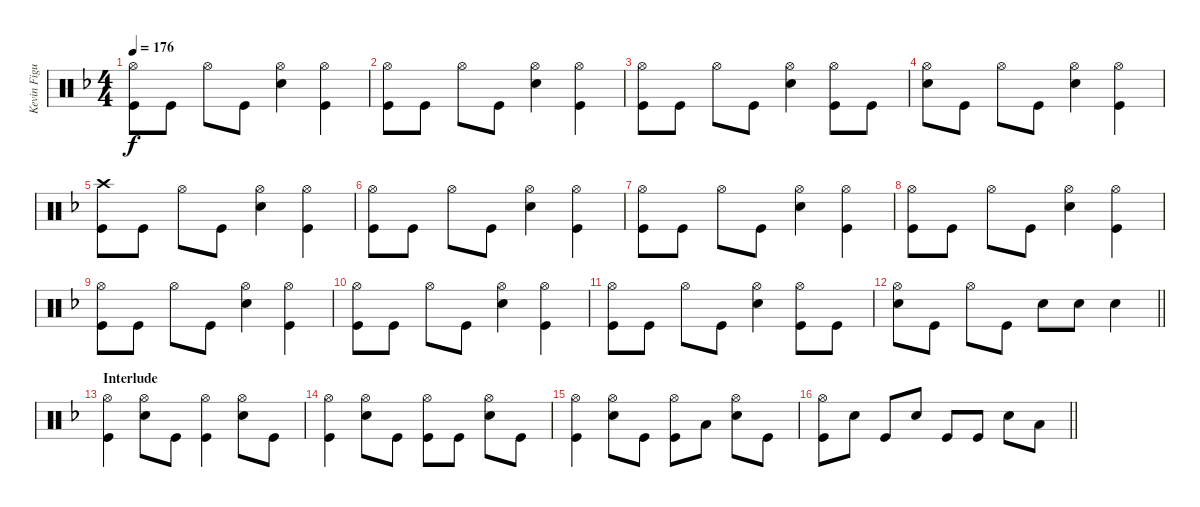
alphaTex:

\track ("Kevin Figueiredo - Drums" "Kevin Figu") {instrument percussion}
\staff {score}
\articulation defaults
\ts (4 4)
\tempo 176
\clef neutral
\ks f
("Hi-Hat (open)" "Kick (hit)").8{dy f} "Kick (hit)".8 "Hi-Hat (open)".8 "Kick (hit)".8 ("Hi-Hat (open)" "Snare (hit) 2").4 ("Hi-Hat (open)" "Kick (hit)").4 |
("Hi-Hat (open)" "Kick (hit)").8 "Kick (hit)".8 "Hi-Hat (open)".8 "Kick (hit)".8 ("Hi-Hat (open)" "Snare (hit) 2").4 ("Hi-Hat (open)" "Kick (hit)").4 |
("Hi-Hat (open)" "Kick (hit)").8 "Kick (hit)".8 "Hi-Hat (open)".8 "Kick (hit)".8 ("Hi-Hat (open)" "Snare (hit) 2").4 ("Hi-Hat (open)" "Kick (hit)").8 "Kick (hit)".8 |
("Hi-Hat (open)" "Snare (hit) 2").8 "Kick (hit)".8 "Hi-Hat (open)".8 "Kick (hit)".8 ("Hi-Hat (open)" "Snare (hit) 2").4 ("Hi-Hat (open)" "Kick (hit)").4 |
("Crash high (hit)" "Kick (hit)").8 "Kick (hit)".8 "Hi-Hat (open)".8 "Kick (hit)".8 ("Hi-Hat (open)" "Snare (hit) 2").4 ("Hi-Hat (open)" "Kick (hit)").4 |
("Hi-Hat (open)" "Kick (hit)").8 "Kick (hit)".8 "Hi-Hat (open)".8 "Kick (hit)".8 ("Hi-Hat (open)" "Snare (hit) 2").4 ("Hi-Hat (open)" "Kick (hit)").4 |
("Hi-Hat (open)" "Kick (hit)").8 "Kick (hit)".8 "Hi-Hat (open)".8 "Kick (hit)".8 ("Hi-Hat (open)" "Snare (hit) 2").4 ("Hi-Hat (open)" "Kick (hit)").4 |
("Hi-Hat (open)" "Kick (hit)").8 "Kick (hit)".8 "Hi-Hat (open)".8 "Kick (hit)".8 ("Hi-Hat (open)" "Snare (hit) 2").4 ("Hi-Hat (open)" "Kick (hit)").4 |
("Hi-Hat (open)" "Kick (hit)").8 "Kick (hit)".8 "Hi-Hat (open)".8 "Kick (hit)".8 ("Hi-Hat (open)" "Snare (hit) 2").4 ("Hi-Hat (open)" "Kick (hit)").4 |
("Hi-Hat (open)" "Kick (hit)").8 "Kick (hit)".8 "Hi-Hat (open)".8 "Kick (hit)".8 ("Hi-Hat (open)" "Snare (hit) 2").4 ("Hi-Hat (open)" "Kick (hit)").4 |
("Hi-Hat (open)" "Kick (hit)").8 "Kick (hit)".8 "Hi-Hat (open)".8 "Kick (hit)".8 ("Hi-Hat (open)" "Snare (hit) 2").4 ("Hi-Hat (open)" "Kick (hit)").8 "Kick (hit)".8 |
\barLineRight lightlight
("Hi-Hat (open)" "Snare (hit) 2").8 "Kick (hit)".8 "Hi-Hat (open)".8 "Kick (hit)".8 "Snare (hit) 2".8 "Snare (hit) 2".8 "Snare (hit) 2".4 |
\section ("" "Interlude")
("Hi-Hat (open)" "Kick (hit)").4 ("Hi-Hat (open)" "Snare (hit) 2").8 "Kick (hit)".8 ("Hi-Hat (open)" "Kick (hit)").4 ("Hi-Hat (open)" "Snare (hit) 2").8 "Kick (hit)".8 |
("Hi-Hat (open)" "Kick (hit)").4 ("Hi-Hat (open)" "Snare (hit) 2").8 "Kick (hit)".8 ("Hi-Hat (open)" "Kick (hit)").8 "Kick (hit)".8 ("Hi-Hat (open)" "Snare (hit) 2").8 "Kick (hit)".8 |
("Hi-Hat (open)" "Kick (hit)").4 ("Hi-Hat (open)" "Snare (hit) 2").8 "Kick (hit)".8 ("Hi-Hat (open)" "Kick (hit)").8 "Low Floor Tom (hit)".8 ("Hi-Hat (open)" "Snare (hit) 2").8 "Kick (hit)".8 |
\barLineRight lightlight
("Hi-Hat (open)" "Kick (hit)").8 "Snare (hit) 2".8 "Kick (hit)".8 "Snare (hit) 2".8 "Kick (hit)".8 "Kick (hit)".8 "Snare (hit) 2".8 "Low Floor Tom (hit)".8
